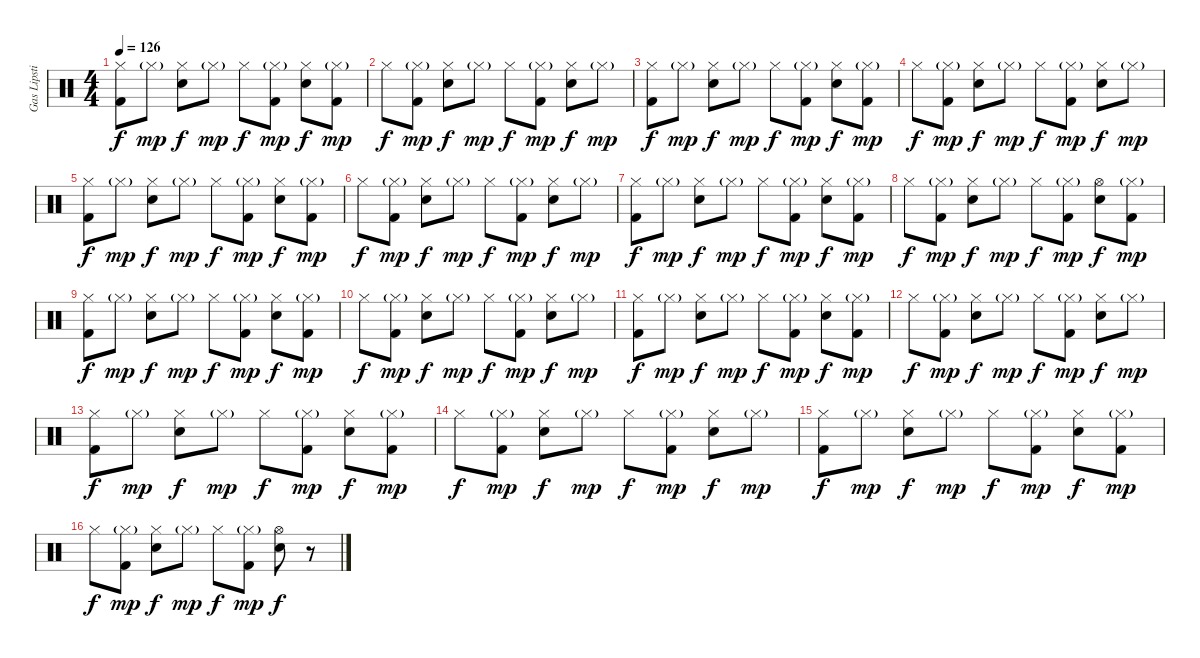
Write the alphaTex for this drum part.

\track ("Gas Lipstick (Drums)" "Gas Lipsti") {instrument percussion}
\staff {score}
\articulation defaults
\ts (4 4)
\tempo 126
\clef neutral
\ks c
("Hi-Hat (closed)" "Kick (hit) 2").8{dy f} "Hi-Hat (closed)"{g}.8{dy mp} ("Hi-Hat (closed)" "Snare (hit) 2").8{dy f} "Hi-Hat (closed)"{g}.8{dy mp} "Hi-Hat (closed)".8{dy f} ("Hi-Hat (closed)"{g} "Kick (hit) 2").8{dy mp} ("Hi-Hat (closed)" "Snare (hit) 2").8{dy f} ("Hi-Hat (closed)"{g} "Kick (hit) 2").8{dy mp} |
"Hi-Hat (closed)".8{dy f} ("Hi-Hat (closed)"{g} "Kick (hit) 2").8{dy mp} ("Hi-Hat (closed)" "Snare (hit) 2").8{dy f} "Hi-Hat (closed)"{g}.8{dy mp} "Hi-Hat (closed)".8{dy f} ("Hi-Hat (closed)"{g} "Kick (hit) 2").8{dy mp} ("Hi-Hat (closed)" "Snare (hit) 2").8{dy f} "Hi-Hat (closed)"{g}.8{dy mp} |
("Hi-Hat (closed)" "Kick (hit) 2").8{dy f} "Hi-Hat (closed)"{g}.8{dy mp} ("Hi-Hat (closed)" "Snare (hit) 2").8{dy f} "Hi-Hat (closed)"{g}.8{dy mp} "Hi-Hat (closed)".8{dy f} ("Hi-Hat (closed)"{g} "Kick (hit) 2").8{dy mp} ("Hi-Hat (closed)" "Snare (hit) 2").8{dy f} ("Hi-Hat (closed)"{g} "Kick (hit) 2").8{dy mp} |
"Hi-Hat (closed)".8{dy f} ("Hi-Hat (closed)"{g} "Kick (hit) 2").8{dy mp} ("Hi-Hat (closed)" "Snare (hit) 2").8{dy f} "Hi-Hat (closed)"{g}.8{dy mp} "Hi-Hat (closed)".8{dy f} ("Hi-Hat (closed)"{g} "Kick (hit) 2").8{dy mp} ("Hi-Hat (closed)" "Snare (hit) 2").8{dy f} "Hi-Hat (closed)"{g}.8{dy mp} |
("Hi-Hat (closed)" "Kick (hit) 2").8{dy f} "Hi-Hat (closed)"{g}.8{dy mp} ("Hi-Hat (closed)" "Snare (hit) 2").8{dy f} "Hi-Hat (closed)"{g}.8{dy mp} "Hi-Hat (closed)".8{dy f} ("Hi-Hat (closed)"{g} "Kick (hit) 2").8{dy mp} ("Hi-Hat (closed)" "Snare (hit) 2").8{dy f} ("Hi-Hat (closed)"{g} "Kick (hit) 2").8{dy mp} |
"Hi-Hat (closed)".8{dy f} ("Hi-Hat (closed)"{g} "Kick (hit) 2").8{dy mp} ("Hi-Hat (closed)" "Snare (hit) 2").8{dy f} "Hi-Hat (closed)"{g}.8{dy mp} "Hi-Hat (closed)".8{dy f} ("Hi-Hat (closed)"{g} "Kick (hit) 2").8{dy mp} ("Hi-Hat (closed)" "Snare (hit) 2").8{dy f} "Hi-Hat (closed)"{g}.8{dy mp} |
("Hi-Hat (closed)" "Kick (hit) 2").8{dy f} "Hi-Hat (closed)"{g}.8{dy mp} ("Hi-Hat (closed)" "Snare (hit) 2").8{dy f} "Hi-Hat (closed)"{g}.8{dy mp} "Hi-Hat (closed)".8{dy f} ("Hi-Hat (closed)"{g} "Kick (hit) 2").8{dy mp} ("Hi-Hat (closed)" "Snare (hit) 2").8{dy f} ("Hi-Hat (closed)"{g} "Kick (hit) 2").8{dy mp} |
"Hi-Hat (closed)".8{dy f} ("Hi-Hat (closed)"{g} "Kick (hit) 2").8{dy mp} ("Hi-Hat (closed)" "Snare (hit) 2").8{dy f} "Hi-Hat (closed)"{g}.8{dy mp} "Hi-Hat (closed)".8{dy f} ("Hi-Hat (closed)"{g} "Kick (hit) 2").8{dy mp} ("Hi-Hat (open)" "Snare (hit) 2").8{dy f} ("Hi-Hat (closed)"{g} "Kick (hit) 2").8{dy mp} |
("Hi-Hat (closed)" "Kick (hit) 2").8{dy f} "Hi-Hat (closed)"{g}.8{dy mp} ("Hi-Hat (closed)" "Snare (hit) 2").8{dy f} "Hi-Hat (closed)"{g}.8{dy mp} "Hi-Hat (closed)".8{dy f} ("Hi-Hat (closed)"{g} "Kick (hit) 2").8{dy mp} ("Hi-Hat (closed)" "Snare (hit) 2").8{dy f} ("Hi-Hat (closed)"{g} "Kick (hit) 2").8{dy mp} |
"Hi-Hat (closed)".8{dy f} ("Hi-Hat (closed)"{g} "Kick (hit) 2").8{dy mp} ("Hi-Hat (closed)" "Snare (hit) 2").8{dy f} "Hi-Hat (closed)"{g}.8{dy mp} "Hi-Hat (closed)".8{dy f} ("Hi-Hat (closed)"{g} "Kick (hit) 2").8{dy mp} ("Hi-Hat (closed)" "Snare (hit) 2").8{dy f} "Hi-Hat (closed)"{g}.8{dy mp} |
("Hi-Hat (closed)" "Kick (hit) 2").8{dy f} "Hi-Hat (closed)"{g}.8{dy mp} ("Hi-Hat (closed)" "Snare (hit) 2").8{dy f} "Hi-Hat (closed)"{g}.8{dy mp} "Hi-Hat (closed)".8{dy f} ("Hi-Hat (closed)"{g} "Kick (hit) 2").8{dy mp} ("Hi-Hat (closed)" "Snare (hit) 2").8{dy f} ("Hi-Hat (closed)"{g} "Kick (hit) 2").8{dy mp} |
"Hi-Hat (closed)".8{dy f} ("Hi-Hat (closed)"{g} "Kick (hit) 2").8{dy mp} ("Hi-Hat (closed)" "Snare (hit) 2").8{dy f} "Hi-Hat (closed)"{g}.8{dy mp} "Hi-Hat (closed)".8{dy f} ("Hi-Hat (closed)"{g} "Kick (hit) 2").8{dy mp} ("Hi-Hat (closed)" "Snare (hit) 2").8{dy f} "Hi-Hat (closed)"{g}.8{dy mp} |
("Hi-Hat (closed)" "Kick (hit) 2").8{dy f} "Hi-Hat (closed)"{g}.8{dy mp} ("Hi-Hat (closed)" "Snare (hit) 2").8{dy f} "Hi-Hat (closed)"{g}.8{dy mp} "Hi-Hat (closed)".8{dy f} ("Hi-Hat (closed)"{g} "Kick (hit) 2").8{dy mp} ("Hi-Hat (closed)" "Snare (hit) 2").8{dy f} ("Hi-Hat (closed)"{g} "Kick (hit) 2").8{dy mp} |
"Hi-Hat (closed)".8{dy f} ("Hi-Hat (closed)"{g} "Kick (hit) 2").8{dy mp} ("Hi-Hat (closed)" "Snare (hit) 2").8{dy f} "Hi-Hat (closed)"{g}.8{dy mp} "Hi-Hat (closed)".8{dy f} ("Hi-Hat (closed)"{g} "Kick (hit) 2").8{dy mp} ("Hi-Hat (closed)" "Snare (hit) 2").8{dy f} "Hi-Hat (closed)"{g}.8{dy mp} |
("Hi-Hat (closed)" "Kick (hit) 2").8{dy f} "Hi-Hat (closed)"{g}.8{dy mp} ("Hi-Hat (closed)" "Snare (hit) 2").8{dy f} "Hi-Hat (closed)"{g}.8{dy mp} "Hi-Hat (closed)".8{dy f} ("Hi-Hat (closed)"{g} "Kick (hit) 2").8{dy mp} ("Hi-Hat (closed)" "Snare (hit) 2").8{dy f} ("Hi-Hat (closed)"{g} "Kick (hit) 2").8{dy mp} |
"Hi-Hat (closed)".8{dy f} ("Hi-Hat (closed)"{g} "Kick (hit) 2").8{dy mp} ("Hi-Hat (closed)" "Snare (hit) 2").8{dy f} "Hi-Hat (closed)"{g}.8{dy mp} "Hi-Hat (closed)".8{dy f} ("Hi-Hat (closed)"{g} "Kick (hit) 2").8{dy mp} ("Hi-Hat (open)" "Snare (hit) 2").8{dy f} r.8
